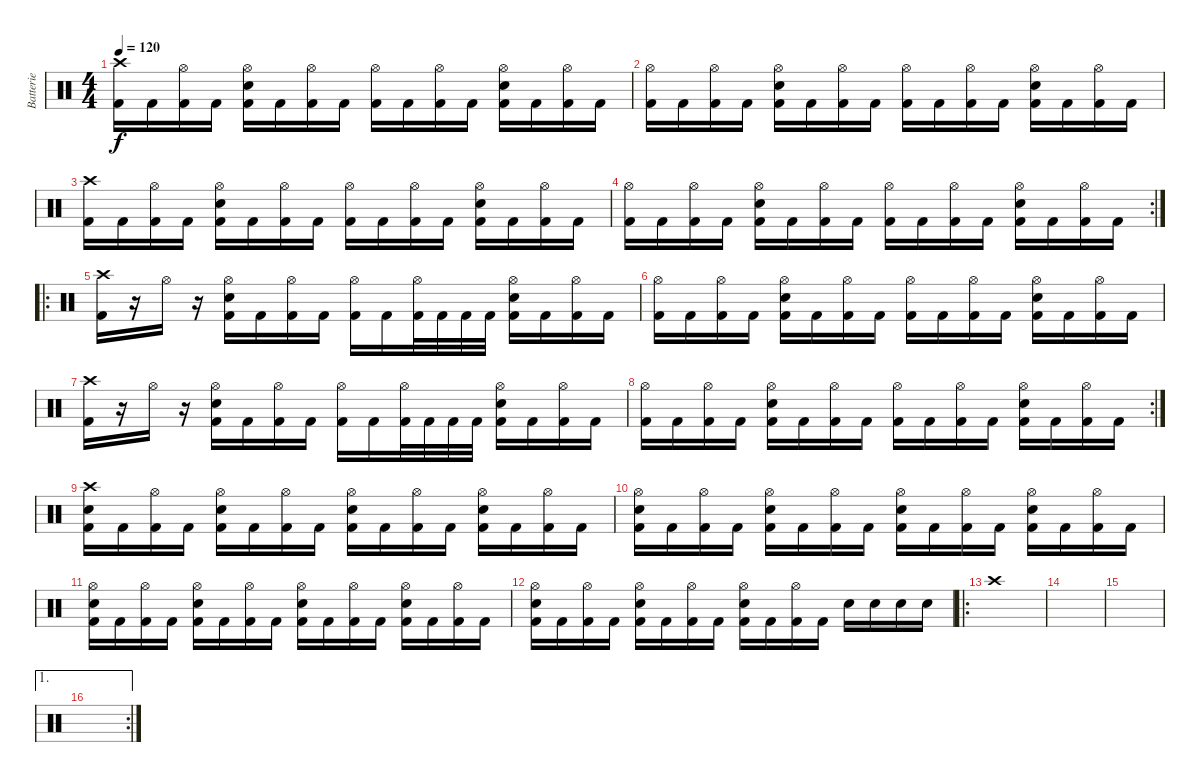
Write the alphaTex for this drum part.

\track ("Batterie" "Batterie") {instrument percussion}
\staff {score}
\articulation defaults
\ts (4 4)
\tempo 120
\clef neutral
\ks c
("Crash high (hit)" "Kick (hit) 2").16{dy f} "Kick (hit) 2".16 ("Hi-Hat (open)" "Kick (hit) 2").16 "Kick (hit) 2".16 ("Hi-Hat (open)" "Snare (hit) 2" "Kick (hit) 2").16 "Kick (hit) 2".16 ("Hi-Hat (open)" "Kick (hit) 2").16 "Kick (hit) 2".16 ("Hi-Hat (open)" "Kick (hit) 2").16 "Kick (hit) 2".16 ("Hi-Hat (open)" "Kick (hit) 2").16 "Kick (hit) 2".16 ("Hi-Hat (open)" "Snare (hit) 2" "Kick (hit) 2").16 "Kick (hit) 2".16 ("Hi-Hat (open)" "Kick (hit) 2").16 "Kick (hit) 2".16 |
("Hi-Hat (open)" "Kick (hit) 2").16 "Kick (hit) 2".16 ("Hi-Hat (open)" "Kick (hit) 2").16 "Kick (hit) 2".16 ("Hi-Hat (open)" "Snare (hit) 2" "Kick (hit) 2").16 "Kick (hit) 2".16 ("Hi-Hat (open)" "Kick (hit) 2").16 "Kick (hit) 2".16 ("Hi-Hat (open)" "Kick (hit) 2").16 "Kick (hit) 2".16 ("Hi-Hat (open)" "Kick (hit) 2").16 "Kick (hit) 2".16 ("Hi-Hat (open)" "Snare (hit) 2" "Kick (hit) 2").16 "Kick (hit) 2".16 ("Hi-Hat (open)" "Kick (hit) 2").16 "Kick (hit) 2".16 |
("Crash high (hit)" "Kick (hit) 2").16 "Kick (hit) 2".16 ("Hi-Hat (open)" "Kick (hit) 2").16 "Kick (hit) 2".16 ("Hi-Hat (open)" "Snare (hit) 2" "Kick (hit) 2").16 "Kick (hit) 2".16 ("Hi-Hat (open)" "Kick (hit) 2").16 "Kick (hit) 2".16 ("Hi-Hat (open)" "Kick (hit) 2").16 "Kick (hit) 2".16 ("Hi-Hat (open)" "Kick (hit) 2").16 "Kick (hit) 2".16 ("Hi-Hat (open)" "Snare (hit) 2" "Kick (hit) 2").16 "Kick (hit) 2".16 ("Hi-Hat (open)" "Kick (hit) 2").16 "Kick (hit) 2".16 |
\rc 2
("Hi-Hat (open)" "Kick (hit) 2").16 "Kick (hit) 2".16 ("Hi-Hat (open)" "Kick (hit) 2").16 "Kick (hit) 2".16 ("Hi-Hat (open)" "Snare (hit) 2" "Kick (hit) 2").16 "Kick (hit) 2".16 ("Hi-Hat (open)" "Kick (hit) 2").16 "Kick (hit) 2".16 ("Hi-Hat (open)" "Kick (hit) 2").16 "Kick (hit) 2".16 ("Hi-Hat (open)" "Kick (hit) 2").16 "Kick (hit) 2".16 ("Hi-Hat (open)" "Snare (hit) 2" "Kick (hit) 2").16 "Kick (hit) 2".16 ("Hi-Hat (open)" "Kick (hit) 2").16 "Kick (hit) 2".16 |
\ro
("Crash high (hit)" "Kick (hit) 2").16 r.16 "Hi-Hat (open)".16 r.16 ("Hi-Hat (open)" "Snare (hit) 2" "Kick (hit) 2").16 "Kick (hit) 2".16 ("Hi-Hat (open)" "Kick (hit) 2").16 "Kick (hit) 2".16 ("Hi-Hat (open)" "Kick (hit) 2").16 "Kick (hit) 2".16 ("Hi-Hat (open)" "Kick (hit) 2").32 "Kick (hit) 2".32 "Kick (hit) 2".32 "Kick (hit) 2".32 ("Hi-Hat (open)" "Snare (hit) 2" "Kick (hit) 2").16 "Kick (hit) 2".16 ("Hi-Hat (open)" "Kick (hit) 2").16 "Kick (hit) 2".16 |
("Hi-Hat (open)" "Kick (hit) 2").16 "Kick (hit) 2".16 ("Hi-Hat (open)" "Kick (hit) 2").16 "Kick (hit) 2".16 ("Hi-Hat (open)" "Snare (hit) 2" "Kick (hit) 2").16 "Kick (hit) 2".16 ("Hi-Hat (open)" "Kick (hit) 2").16 "Kick (hit) 2".16 ("Hi-Hat (open)" "Kick (hit) 2").16 "Kick (hit) 2".16 ("Hi-Hat (open)" "Kick (hit) 2").16 "Kick (hit) 2".16 ("Hi-Hat (open)" "Snare (hit) 2" "Kick (hit) 2").16 "Kick (hit) 2".16 ("Hi-Hat (open)" "Kick (hit) 2").16 "Kick (hit) 2".16 |
("Crash high (hit)" "Kick (hit) 2").16 r.16 "Hi-Hat (open)".16 r.16 ("Hi-Hat (open)" "Snare (hit) 2" "Kick (hit) 2").16 "Kick (hit) 2".16 ("Hi-Hat (open)" "Kick (hit) 2").16 "Kick (hit) 2".16 ("Hi-Hat (open)" "Kick (hit) 2").16 "Kick (hit) 2".16 ("Hi-Hat (open)" "Kick (hit) 2").32 "Kick (hit) 2".32 "Kick (hit) 2".32 "Kick (hit) 2".32 ("Hi-Hat (open)" "Snare (hit) 2" "Kick (hit) 2").16 "Kick (hit) 2".16 ("Hi-Hat (open)" "Kick (hit) 2").16 "Kick (hit) 2".16 |
\rc 2
("Hi-Hat (open)" "Kick (hit) 2").16 "Kick (hit) 2".16 ("Hi-Hat (open)" "Kick (hit) 2").16 "Kick (hit) 2".16 ("Hi-Hat (open)" "Snare (hit) 2" "Kick (hit) 2").16 "Kick (hit) 2".16 ("Hi-Hat (open)" "Kick (hit) 2").16 "Kick (hit) 2".16 ("Hi-Hat (open)" "Kick (hit) 2").16 "Kick (hit) 2".16 ("Hi-Hat (open)" "Kick (hit) 2").16 "Kick (hit) 2".16 ("Hi-Hat (open)" "Snare (hit) 2" "Kick (hit) 2").16 "Kick (hit) 2".16 ("Hi-Hat (open)" "Kick (hit) 2").16 "Kick (hit) 2".16 |
("Crash high (hit)" "Snare (hit) 2" "Kick (hit) 2").16 "Kick (hit) 2".16 ("Hi-Hat (open)" "Kick (hit) 2").16 "Kick (hit) 2".16 ("Hi-Hat (open)" "Snare (hit) 2" "Kick (hit) 2").16 "Kick (hit) 2".16 ("Hi-Hat (open)" "Kick (hit) 2").16 "Kick (hit) 2".16 ("Hi-Hat (open)" "Snare (hit) 2" "Kick (hit) 2").16 "Kick (hit) 2".16 ("Hi-Hat (open)" "Kick (hit) 2").16 "Kick (hit) 2".16 ("Hi-Hat (open)" "Snare (hit) 2" "Kick (hit) 2").16 "Kick (hit) 2".16 ("Hi-Hat (open)" "Kick (hit) 2").16 "Kick (hit) 2".16 |
("Hi-Hat (open)" "Snare (hit) 2" "Kick (hit) 2").16 "Kick (hit) 2".16 ("Hi-Hat (open)" "Kick (hit) 2").16 "Kick (hit) 2".16 ("Hi-Hat (open)" "Snare (hit) 2" "Kick (hit) 2").16 "Kick (hit) 2".16 ("Hi-Hat (open)" "Kick (hit) 2").16 "Kick (hit) 2".16 ("Hi-Hat (open)" "Snare (hit) 2" "Kick (hit) 2").16 "Kick (hit) 2".16 ("Hi-Hat (open)" "Kick (hit) 2").16 "Kick (hit) 2".16 ("Hi-Hat (open)" "Snare (hit) 2" "Kick (hit) 2").16 "Kick (hit) 2".16 ("Hi-Hat (open)" "Kick (hit) 2").16 "Kick (hit) 2".16 |
("Hi-Hat (open)" "Snare (hit) 2" "Kick (hit) 2").16 "Kick (hit) 2".16 ("Hi-Hat (open)" "Kick (hit) 2").16 "Kick (hit) 2".16 ("Hi-Hat (open)" "Snare (hit) 2" "Kick (hit) 2").16 "Kick (hit) 2".16 ("Hi-Hat (open)" "Kick (hit) 2").16 "Kick (hit) 2".16 ("Hi-Hat (open)" "Snare (hit) 2" "Kick (hit) 2").16 "Kick (hit) 2".16 ("Hi-Hat (open)" "Kick (hit) 2").16 "Kick (hit) 2".16 ("Hi-Hat (open)" "Snare (hit) 2" "Kick (hit) 2").16 "Kick (hit) 2".16 ("Hi-Hat (open)" "Kick (hit) 2").16 "Kick (hit) 2".16 |
("Hi-Hat (open)" "Snare (hit) 2" "Kick (hit) 2").16 "Kick (hit) 2".16 ("Hi-Hat (open)" "Kick (hit) 2").16 "Kick (hit) 2".16 ("Hi-Hat (open)" "Snare (hit) 2" "Kick (hit) 2").16 "Kick (hit) 2".16 ("Hi-Hat (open)" "Kick (hit) 2").16 "Kick (hit) 2".16 ("Hi-Hat (open)" "Snare (hit) 2" "Kick (hit) 2").16 "Kick (hit) 2".16 ("Hi-Hat (open)" "Kick (hit) 2").16 "Kick (hit) 2".16 "Snare (hit) 2".16 "Snare (hit) 2".16 "Snare (hit) 2".16 "Snare (hit) 2".16 |
\ro "Crash high (hit)".1
|
|
|
\ae 1
\rc 2
